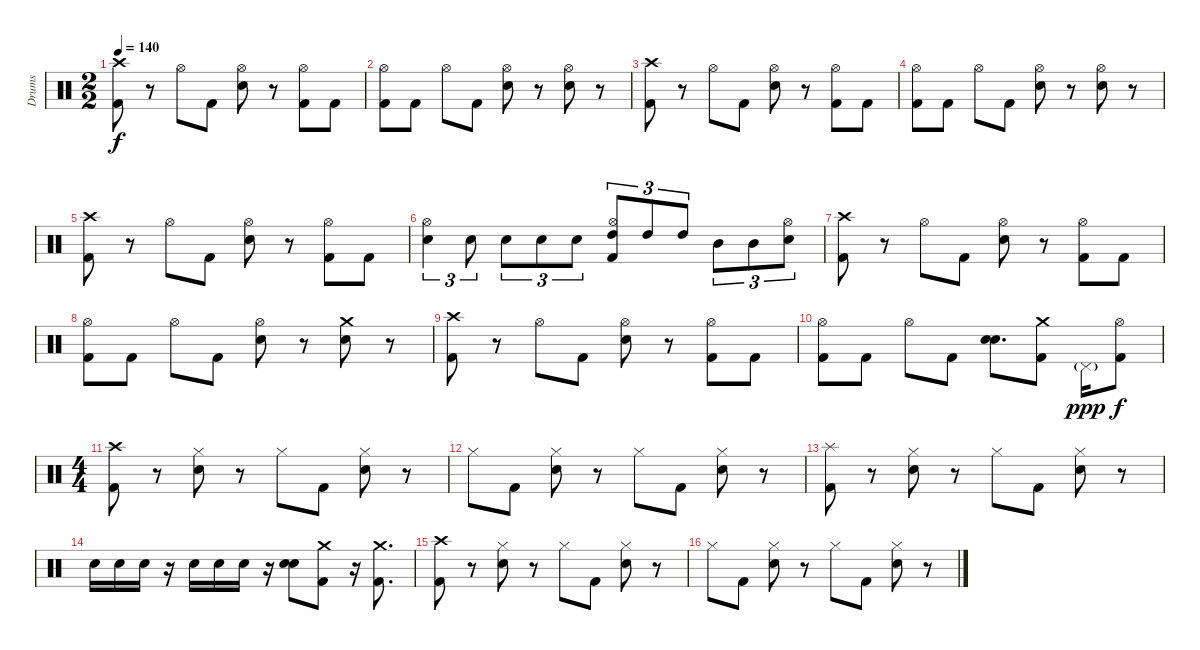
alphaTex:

\track ("Drums" "Drums") {instrument percussion}
\staff {score}
\articulation defaults
\ts (2 2)
\tempo 140
\clef neutral
\ks c
("Crash high (hit)" "Kick (hit) 2").8{dy f} r.8 "Hi-Hat (open)".8 "Kick (hit) 2".8 ("Hi-Hat (open)" "Snare (hit) 2").8 r.8 ("Hi-Hat (open)" "Kick (hit) 2").8 "Kick (hit) 2".8 |
("Hi-Hat (open)" "Kick (hit) 2").8 "Kick (hit) 2".8 "Hi-Hat (open)".8 "Kick (hit) 2".8 ("Hi-Hat (open)" "Snare (hit) 2").8 r.8 ("Hi-Hat (open)" "Snare (hit) 2").8 r.8 |
("Crash high (hit)" "Kick (hit) 2").8 r.8 "Hi-Hat (open)".8 "Kick (hit) 2".8 ("Hi-Hat (open)" "Snare (hit) 2").8 r.8 ("Hi-Hat (open)" "Kick (hit) 2").8 "Kick (hit) 2".8 |
("Hi-Hat (open)" "Kick (hit) 2").8 "Kick (hit) 2".8 "Hi-Hat (open)".8 "Kick (hit) 2".8 ("Hi-Hat (open)" "Snare (hit) 2").8 r.8 ("Hi-Hat (open)" "Snare (hit) 2").8 r.8 |
("Crash high (hit)" "Kick (hit) 2").8 r.8 "Hi-Hat (open)".8 "Kick (hit) 2".8 ("Hi-Hat (open)" "Snare (hit) 2").8 r.8 ("Hi-Hat (open)" "Kick (hit) 2").8 "Kick (hit) 2".8 |
("Hi-Hat (open)" "Snare (hit) 2").4{tu (3 2)} "Snare (hit) 2".8{tu (3 2)} "Snare (hit) 2".8{tu (3 2)} "Snare (hit) 2".8{tu (3 2)} "Snare (hit) 2".8{tu (3 2)} ("Hi-Hat (open)" "High Tom (hit)" "Kick (hit) 2").8{tu (3 2)} "High Tom (hit)".8{tu (3 2)} "High Tom (hit)".8{tu (3 2)} "Mid Tom (hit)".8{tu (3 2)} "Mid Tom (hit)".8{tu (3 2)} ("Hi-Hat (open)" "Snare (hit) 2").8{tu (3 2)} |
("Crash high (hit)" "Kick (hit) 2").8 r.8 "Hi-Hat (open)".8 "Kick (hit) 2".8 ("Hi-Hat (open)" "Snare (hit) 2").8 r.8 ("Hi-Hat (open)" "Kick (hit) 2").8 "Kick (hit) 2".8 |
("Hi-Hat (open)" "Kick (hit) 2").8 "Kick (hit) 2".8 "Hi-Hat (open)".8 "Kick (hit) 2".8 ("Hi-Hat (open)" "Snare (hit) 2").8 r.8 ("Crash medium (hit)" "Snare (hit) 2").8 r.8 |
("Crash high (hit)" "Kick (hit) 2").8 r.8 "Hi-Hat (open)".8 "Kick (hit) 2".8 ("Hi-Hat (open)" "Snare (hit) 2").8 r.8 ("Hi-Hat (open)" "Kick (hit) 2").8 "Kick (hit) 2".8 |
("Hi-Hat (open)" "Kick (hit) 2").8 "Kick (hit) 2".8 "Hi-Hat (open)".8 "Kick (hit) 2".8 ("Snare (hit) 2" "Snare (hit) 2").8{d bd 240} ("Crash medium (hit)" "Kick (hit) 2").8 "Pedal Hi-Hat (hit)"{g}.16{dy ppp} ("Hi-Hat (open)" "Kick (hit) 2").8{dy f} |
\ts (4 4)
("Crash high (hit)" "Kick (hit) 2").8 r.8 ("Hi-Hat (closed)" "Snare (hit) 2").8 r.8 "Hi-Hat (closed)".8 "Kick (hit) 2".8 ("Hi-Hat (closed)" "Snare (hit) 2").8 r.8 |
"Hi-Hat (closed)".8 "Kick (hit) 2".8 ("Hi-Hat (closed)" "Snare (hit) 2").8 r.8 "Hi-Hat (closed)".8 "Kick (hit) 2".8 ("Hi-Hat (closed)" "Snare (hit) 2").8 r.8 |
("Splash (hit)" "Kick (hit) 2").8 r.8 ("Hi-Hat (closed)" "Snare (hit) 2").8 r.8 "Hi-Hat (closed)".8 "Kick (hit) 2".8 ("Hi-Hat (closed)" "Snare (hit) 2").8 r.8 |
"Snare (hit) 2".16 "Snare (hit) 2".16 "Snare (hit) 2".16 r.16 "Snare (hit) 2".16 "Snare (hit) 2".16 "Snare (hit) 2".16 r.16 ("Snare (hit) 2" "Snare (hit) 2").8{bd 480} ("Crash medium (hit)" "Kick (hit) 2").8 r.16 ("Crash medium (hit)" "Kick (hit) 2").8{d} |
("Crash high (hit)" "Kick (hit) 2").8 r.8 ("Hi-Hat (closed)" "Snare (hit) 2").8 r.8 "Hi-Hat (closed)".8 "Kick (hit) 2".8 ("Hi-Hat (closed)" "Snare (hit) 2").8 r.8 |
"Hi-Hat (closed)".8 "Kick (hit) 2".8 ("Hi-Hat (closed)" "Snare (hit) 2").8 r.8 "Hi-Hat (closed)".8 "Kick (hit) 2".8 ("Hi-Hat (closed)" "Snare (hit) 2").8 r.8
